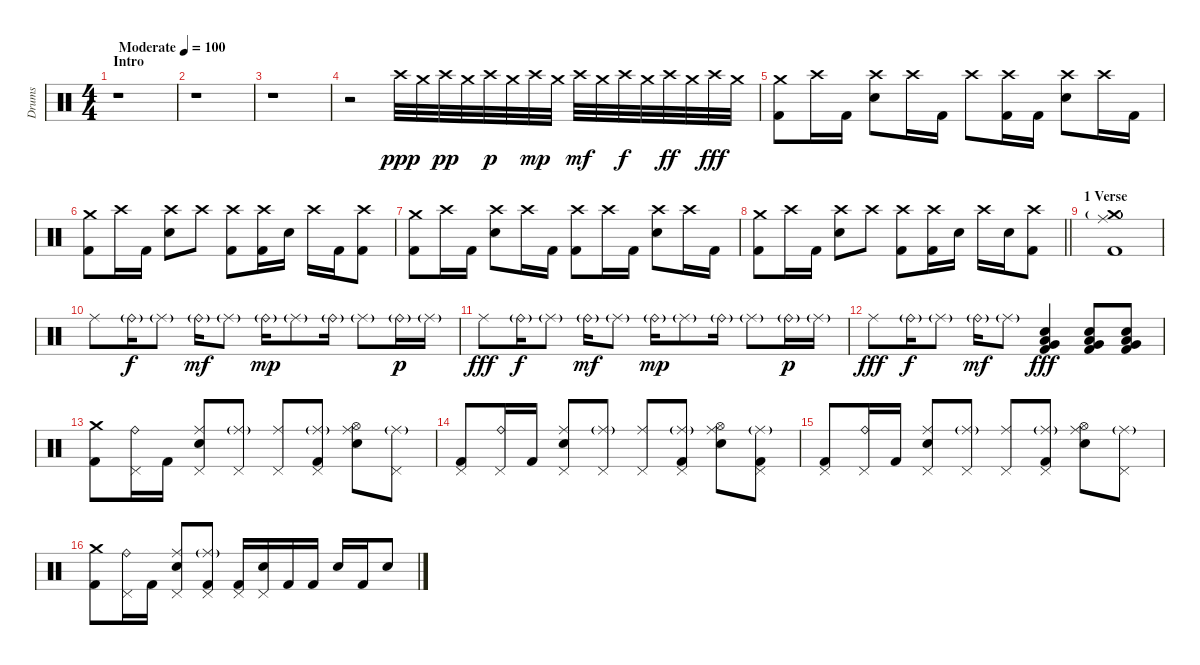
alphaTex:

\track ("Drums" "Drums") {instrument percussion}
\staff {score}
\articulation defaults
\ts (4 4)
\section ("" "Intro")
\tempo (100 "Moderate")
\clef neutral
\ks c
r.1{dy ppp} |
r.1 |
r.1 |
r.2 "Crash high (hit)".32 "Crash medium (hit)".32 "Crash high (hit)".32{dy pp} "Crash medium (hit)".32 "Crash high (hit)".32{dy p} "Crash medium (hit)".32 "Crash high (hit)".32{dy mp} "Crash medium (hit)".32 "Crash high (hit)".32{dy mf} "Crash medium (hit)".32 "Crash high (hit)".32{dy f} "Crash medium (hit)".32 "Crash high (hit)".32{dy ff} "Crash medium (hit)".32 "Crash high (hit)".32{dy fff} "Crash medium (hit)".32 |
("Crash medium (hit)" "Kick (hit) 2").8 "Crash high (hit)".16 "Kick (hit) 2".16 ("Crash high (hit)" "Electric Snare (hit)").8 "Crash high (hit)".16 "Kick (hit) 2".16 "Crash high (hit)".8 ("Crash high (hit)" "Kick (hit) 2").16 "Kick (hit) 2".16 ("Crash high (hit)" "Electric Snare (hit)").8 "Crash high (hit)".16 "Kick (hit) 2".16 |
("Crash medium (hit)" "Kick (hit) 2").8 "Crash high (hit)".16 "Kick (hit) 2".16 ("Crash high (hit)" "Electric Snare (hit)").8 "Crash high (hit)".8 ("Crash high (hit)" "Kick (hit) 2").8 ("Crash high (hit)" "Kick (hit) 2").16 "Electric Snare (hit)".16 "Crash high (hit)".16 "Kick (hit) 2".16 ("Crash high (hit)" "Kick (hit) 2").8 |
("Crash medium (hit)" "Kick (hit) 2").8 "Crash high (hit)".16 "Kick (hit) 2".16 ("Crash high (hit)" "Electric Snare (hit)").8 "Crash high (hit)".16 "Kick (hit) 2".16 ("Crash high (hit)" "Kick (hit) 2").8 "Crash high (hit)".16 "Kick (hit) 2".16 ("Crash high (hit)" "Electric Snare (hit)").8 "Crash high (hit)".16 "Kick (hit) 2".16 |
\barLineRight lightlight
("Crash medium (hit)" "Kick (hit) 2").8 "Crash high (hit)".16 "Kick (hit) 2".16 ("Crash high (hit)" "Electric Snare (hit)").8 "Crash high (hit)".8 ("Crash high (hit)" "Kick (hit) 2").8 ("Crash high (hit)" "Kick (hit) 2").16 "Electric Snare (hit)".16 "Crash high (hit)".16 "Electric Snare (hit)".16 ("Crash high (hit)" "Kick (hit) 2").8 |
\section ("" "1 Verse")
("Crash medium (hit)"{g} "Kick (hit) 2" "Ride (middle)").1 |
"Ride (middle)".8 "Ride (bell)"{g}.16{dy f} "Ride (middle)"{g}.8 "Ride (bell)"{g}.16{dy mf} "Ride (middle)"{g}.8 "Ride (bell)"{g}.16{dy mp} "Ride (middle)"{g}.8 "Ride (bell)"{g}.16 "Ride (middle)"{g}.8 "Ride (bell)"{g}.16{dy p} "Ride (middle)"{g}.16 |
"Ride (middle)".8{dy fff} "Ride (bell)"{g}.16{dy f} "Ride (middle)"{g}.8 "Ride (bell)"{g}.16{dy mf} "Ride (middle)"{g}.8 "Ride (bell)"{g}.16{dy mp} "Ride (middle)"{g}.8 "Ride (bell)"{g}.16 "Ride (middle)"{g}.8 "Ride (bell)"{g}.16{dy p} "Ride (middle)"{g}.16 |
"Ride (middle)".8{dy fff} "Ride (bell)"{g}.16{dy f} "Ride (middle)"{g}.8 "Ride (bell)"{g}.16{dy mf} "Ride (middle)"{g}.8 ("Electric Snare (hit)" "Very Low Tom (hit)" "Low Tom (hit)" "Kick (hit) 2").4{dy fff} ("Electric Snare (hit)" "Very Low Tom (hit)" "Low Tom (hit)" "Kick (hit) 2").8 ("Electric Snare (hit)" "Very Low Tom (hit)" "Low Tom (hit)" "Kick (hit) 2").8 |
("Crash medium (hit)" "Kick (hit) 2").8 ("Ride (bell)" "Pedal Hi-Hat (hit)").16 "Kick (hit) 2".16 ("Ride (middle)" "Pedal Hi-Hat (hit)" "Electric Snare (hit)").8 ("Ride (middle)"{g} "Pedal Hi-Hat (hit)").8 ("Ride (middle)" "Pedal Hi-Hat (hit)").8 ("Ride (middle)"{g} "Pedal Hi-Hat (hit)" "Kick (hit) 2").8 ("Ride (middle)" "Hi-Hat (open)" "Electric Snare (hit)").8 ("Ride (middle)"{g} "Pedal Hi-Hat (hit)").8 |
("Pedal Hi-Hat (hit)" "Kick (hit) 2").8 ("Ride (bell)" "Pedal Hi-Hat (hit)").16 "Kick (hit) 2".16 ("Ride (middle)" "Pedal Hi-Hat (hit)" "Electric Snare (hit)").8 ("Ride (middle)"{g} "Pedal Hi-Hat (hit)").8 ("Ride (middle)" "Pedal Hi-Hat (hit)").8 ("Ride (middle)"{g} "Pedal Hi-Hat (hit)" "Kick (hit) 2").8 ("Ride (middle)" "Hi-Hat (open)" "Electric Snare (hit)").8 ("Ride (middle)"{g} "Pedal Hi-Hat (hit)" "Kick (hit) 2").8 |
("Pedal Hi-Hat (hit)" "Kick (hit) 2").8 ("Ride (bell)" "Pedal Hi-Hat (hit)").16 "Kick (hit) 2".16 ("Ride (middle)" "Pedal Hi-Hat (hit)" "Electric Snare (hit)").8 ("Ride (middle)"{g} "Pedal Hi-Hat (hit)").8 ("Ride (middle)" "Pedal Hi-Hat (hit)").8 ("Ride (middle)"{g} "Pedal Hi-Hat (hit)" "Kick (hit) 2").8 ("Ride (middle)" "Hi-Hat (open)" "Electric Snare (hit)").8 ("Ride (middle)"{g} "Pedal Hi-Hat (hit)").8 |
("Crash medium (hit)" "Kick (hit) 2").8 ("Ride (bell)" "Pedal Hi-Hat (hit)").16 "Kick (hit) 2".16 ("Ride (middle)" "Pedal Hi-Hat (hit)" "Electric Snare (hit)").8 ("Ride (middle)"{g} "Pedal Hi-Hat (hit)" "Kick (hit) 2").8 ("Pedal Hi-Hat (hit)" "Kick (hit) 2").16 ("Pedal Hi-Hat (hit)" "Electric Snare (hit)").16 "Kick (hit) 2".16 "Kick (hit) 2".16 "Electric Snare (hit)".16 "Kick (hit) 2".16 "Electric Snare (hit)".8
